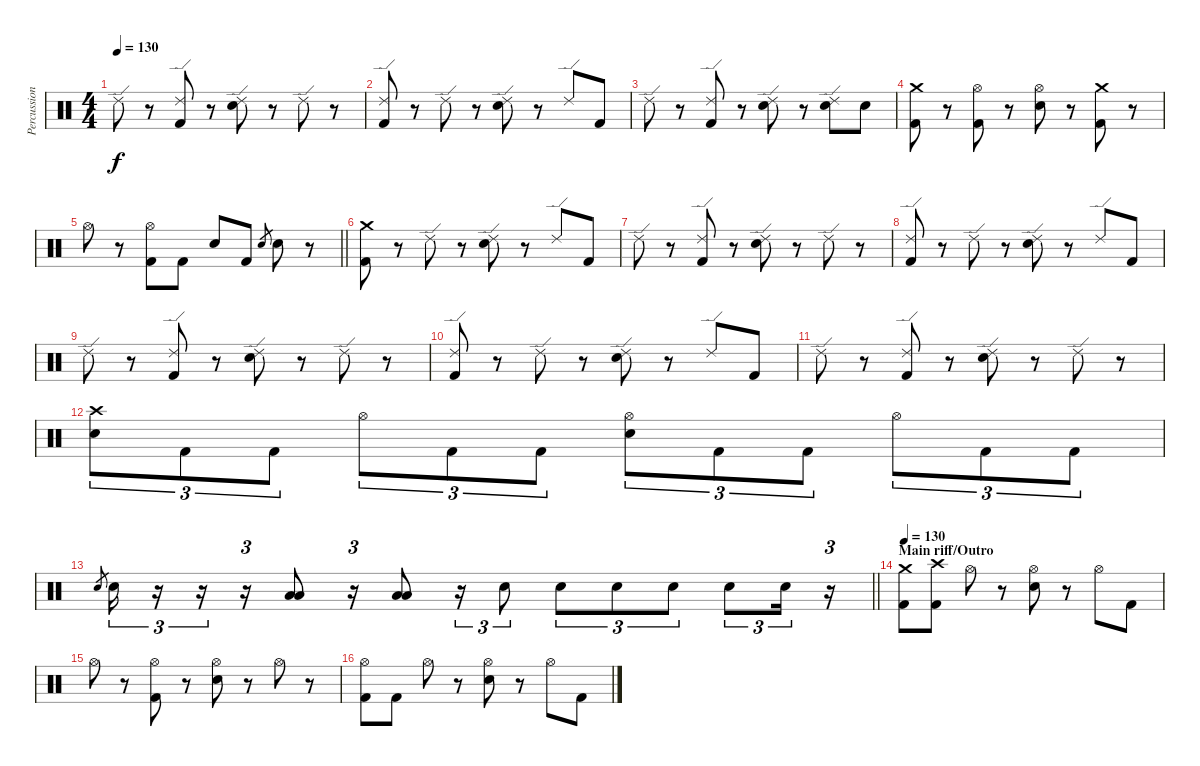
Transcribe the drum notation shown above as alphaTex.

\track ("Percussion" "Percussion") {instrument percussion}
\staff {score}
\articulation defaults
\ts (4 4)
\tempo 130
\clef neutral
\ks c "Ride (edge) 2".8{dy f}
r.8 ("Ride (edge) 2" "Kick (hit) 2").8 r.8 ("Ride (edge) 2" "Electric Snare (hit)").8 r.8 "Ride (edge) 2".8 r.8 |
("Ride (edge) 2" "Kick (hit) 2").8 r.8 "Ride (edge) 2".8 r.8 ("Ride (edge) 2" "Electric Snare (hit)").8 r.8 "Ride (edge) 2".8 "Kick (hit) 2".8 |
"Ride (edge) 2".8 r.8 ("Ride (edge) 2" "Kick (hit) 2").8 r.8 ("Ride (edge) 2" "Electric Snare (hit)").8 r.8 ("Ride (edge) 2" "Electric Snare (hit)").8 "Electric Snare (hit)".8 |
("Crash medium (hit)" "Kick (hit) 2").8 r.8 ("Hi-Hat (open)" "Kick (hit) 2").8 r.8 ("Hi-Hat (open)" "Electric Snare (hit)").8 r.8 ("Crash medium (hit)" "Kick (hit) 2").8 r.8 |
\barLineRight lightlight "Hi-Hat (open)".8
r.8 ("Hi-Hat (open)" "Kick (hit) 2").8 "Kick (hit) 2".8 "Electric Snare (hit)".8 "Kick (hit) 2".8 "Electric Snare (hit)".8{gr} "Electric Snare (hit)".8 r.8 |
("Crash medium (hit)" "Kick (hit) 2").8 r.8 "Ride (edge) 2".8 r.8 ("Ride (edge) 2" "Electric Snare (hit)").8 r.8 "Ride (edge) 2".8 "Kick (hit) 2".8 |
"Ride (edge) 2".8 r.8 ("Ride (edge) 2" "Kick (hit) 2").8 r.8 ("Ride (edge) 2" "Electric Snare (hit)").8 r.8 "Ride (edge) 2".8 r.8 |
("Ride (edge) 2" "Kick (hit) 2").8 r.8 "Ride (edge) 2".8 r.8 ("Ride (edge) 2" "Electric Snare (hit)").8 r.8 "Ride (edge) 2".8 "Kick (hit) 2".8 |
"Ride (edge) 2".8 r.8 ("Ride (edge) 2" "Kick (hit) 2").8 r.8 ("Ride (edge) 2" "Electric Snare (hit)").8 r.8 "Ride (edge) 2".8 r.8 |
("Ride (edge) 2" "Kick (hit) 2").8 r.8 "Ride (edge) 2".8 r.8 ("Ride (edge) 2" "Electric Snare (hit)").8 r.8 "Ride (edge) 2".8 "Kick (hit) 2".8 |
"Ride (edge) 2".8 r.8 ("Ride (edge) 2" "Kick (hit) 2").8 r.8 ("Ride (edge) 2" "Electric Snare (hit)").8 r.8 "Ride (edge) 2".8 r.8 |
("Crash high (hit)" "Electric Snare (hit)").8{tu (3 2)} "Kick (hit) 2".8{tu (3 2)} "Kick (hit) 2".8{tu (3 2)} "Hi-Hat (open)".8{tu (3 2)} "Kick (hit) 2".8{tu (3 2)} "Kick (hit) 2".8{tu (3 2)} ("Hi-Hat (open)" "Electric Snare (hit)").8{tu (3 2)} "Kick (hit) 2".8{tu (3 2)} "Kick (hit) 2".8{tu (3 2)} "Hi-Hat (open)".8{tu (3 2)} "Kick (hit) 2".8{tu (3 2)} "Kick (hit) 2".8{tu (3 2)} |
\barLineRight lightlight "Electric Snare (hit)".8{gr} "Electric Snare (hit)".16{tu (3 2)}
r.16{tu (3 2)} r.16{tu (3 2)} r.16{tu (3 2)} ("Low Tom (hit)" "Low Tom (hit)").8 r.16{tu (3 2)} ("Low Tom (hit)" "Low Tom (hit)").8 r.16{tu (3 2)} "Electric Snare (hit)".8{tu (3 2)} "Electric Snare (hit)".8{tu (3 2)} "Electric Snare (hit)".8{tu (3 2)} "Electric Snare (hit)".8{tu (3 2)} "Electric Snare (hit)".8{tu (3 2)} "Electric Snare (hit)".16{tu (3 2)} r.16{tu (3 2)} |
\section ("" "Main riff/Outro")
\tempo 130
("Crash medium (hit)" "Kick (hit) 2").8 ("Crash high (hit)" "Kick (hit) 2").8 "Hi-Hat (open)".8 r.8 ("Hi-Hat (open)" "Electric Snare (hit)").8 r.8 "Hi-Hat (open)".8 "Kick (hit) 2".8 |
"Hi-Hat (open)".8 r.8 ("Hi-Hat (open)" "Kick (hit) 2").8 r.8 ("Hi-Hat (open)" "Electric Snare (hit)").8 r.8 "Hi-Hat (open)".8 r.8 |
("Hi-Hat (open)" "Kick (hit) 2").8 "Kick (hit) 2".8 "Hi-Hat (open)".8 r.8 ("Hi-Hat (open)" "Electric Snare (hit)").8 r.8 "Hi-Hat (open)".8 "Kick (hit) 2".8
